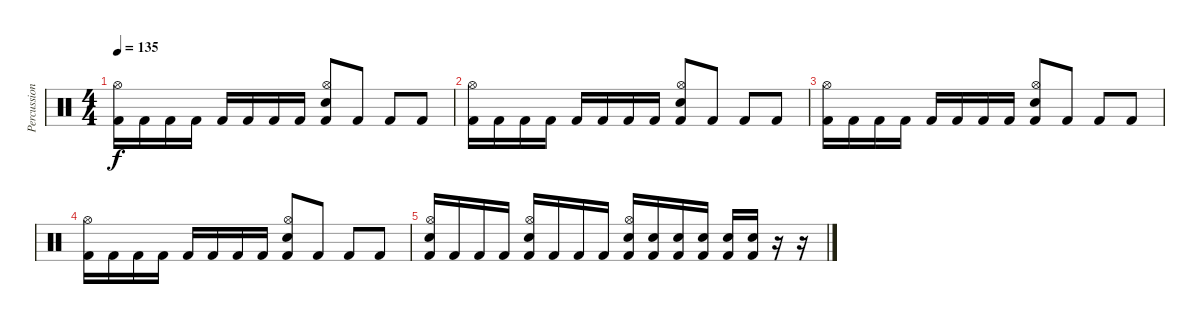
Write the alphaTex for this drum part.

\track ("Percussion" "Percussion") {instrument percussion}
\staff {score}
\articulation defaults
\ts (4 4)
\tempo 135
\clef neutral
\ks c
("Kick (hit) 2" "Hi-Hat (open)").16{dy f} "Kick (hit) 2".16 "Kick (hit) 2".16 "Kick (hit) 2".16 "Kick (hit) 2".16 "Kick (hit) 2".16 "Kick (hit) 2".16 "Kick (hit) 2".16 ("Kick (hit) 2" "Hi-Hat (open)" "Electric Snare (hit)").8 "Kick (hit) 2".8 "Kick (hit) 2".8 "Kick (hit) 2".8 |
("Kick (hit) 2" "Hi-Hat (open)").16 "Kick (hit) 2".16 "Kick (hit) 2".16 "Kick (hit) 2".16 "Kick (hit) 2".16 "Kick (hit) 2".16 "Kick (hit) 2".16 "Kick (hit) 2".16 ("Kick (hit) 2" "Hi-Hat (open)" "Electric Snare (hit)").8 "Kick (hit) 2".8 "Kick (hit) 2".8 "Kick (hit) 2".8 |
("Kick (hit) 2" "Hi-Hat (open)").16 "Kick (hit) 2".16 "Kick (hit) 2".16 "Kick (hit) 2".16 "Kick (hit) 2".16 "Kick (hit) 2".16 "Kick (hit) 2".16 "Kick (hit) 2".16 ("Kick (hit) 2" "Hi-Hat (open)" "Electric Snare (hit)").8 "Kick (hit) 2".8 "Kick (hit) 2".8 "Kick (hit) 2".8 |
("Kick (hit) 2" "Hi-Hat (open)").16 "Kick (hit) 2".16 "Kick (hit) 2".16 "Kick (hit) 2".16 "Kick (hit) 2".16 "Kick (hit) 2".16 "Kick (hit) 2".16 "Kick (hit) 2".16 ("Kick (hit) 2" "Hi-Hat (open)" "Electric Snare (hit)").8 "Kick (hit) 2".8 "Kick (hit) 2".8 "Kick (hit) 2".8 |
("Kick (hit) 2" "Hi-Hat (open)" "Electric Snare (hit)").16 "Kick (hit) 2".16 "Kick (hit) 2".16 "Kick (hit) 2".16 ("Kick (hit) 2" "Hi-Hat (open)" "Electric Snare (hit)").16 "Kick (hit) 2".16 "Kick (hit) 2".16 "Kick (hit) 2".16 ("Kick (hit) 2" "Hi-Hat (open)" "Electric Snare (hit)").16 ("Kick (hit) 2" "Electric Snare (hit)").16 ("Kick (hit) 2" "Electric Snare (hit)").16 ("Kick (hit) 2" "Electric Snare (hit)").16 ("Kick (hit) 2" "Electric Snare (hit)").16 ("Kick (hit) 2" "Electric Snare (hit)").16 r.16 r.16
